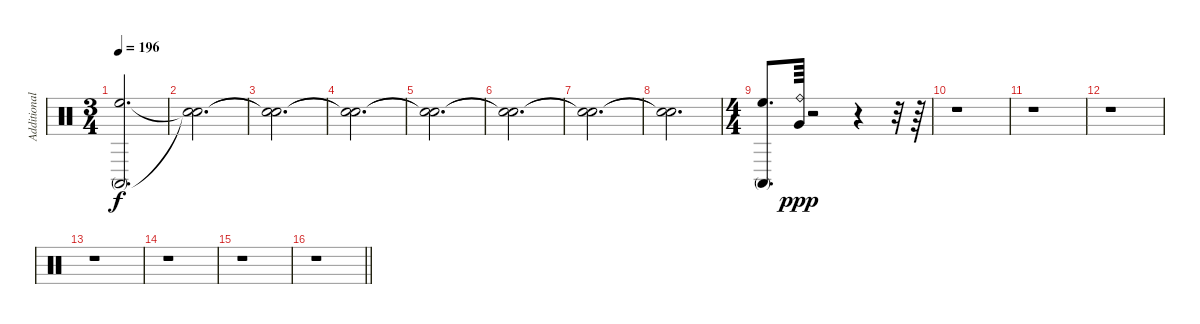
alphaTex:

\track ("Additional" "Additional") {instrument percussion}
\staff {score}
\articulation defaults
\ts (3 4)
\tempo 196
\clef neutral
\ks c
("Conga high (mute)" "High Floor Tom (hit)").2{d dy f} |
("Snare (hit)"{t} "Snare (hit)"{t}).2{d} |
("Snare (hit)"{t} "Snare (hit)"{t}).2{d} |
("Snare (hit)"{t} "Snare (hit)"{t}).2{d} |
("Snare (hit)"{t} "Snare (hit)"{t}).2{d} |
("Snare (hit)"{t} "Snare (hit)"{t}).2{d} |
("Snare (hit)"{t} "Snare (hit)"{t}).2{d} |
("Snare (hit)"{t} "Snare (hit)"{t}).2{d} |
\ts (4 4)
("Conga high (mute)" "High Floor Tom (hit)").8{d} ("Ride (bell)" "Very Low Tom (hit)").64{dy ppp} r.2 r.4 r.32 r.64 |
r.1 |
r.1 |
r.1 |
r.1 |
r.1 |
r.1 |
\barLineRight lightlight
r.1
